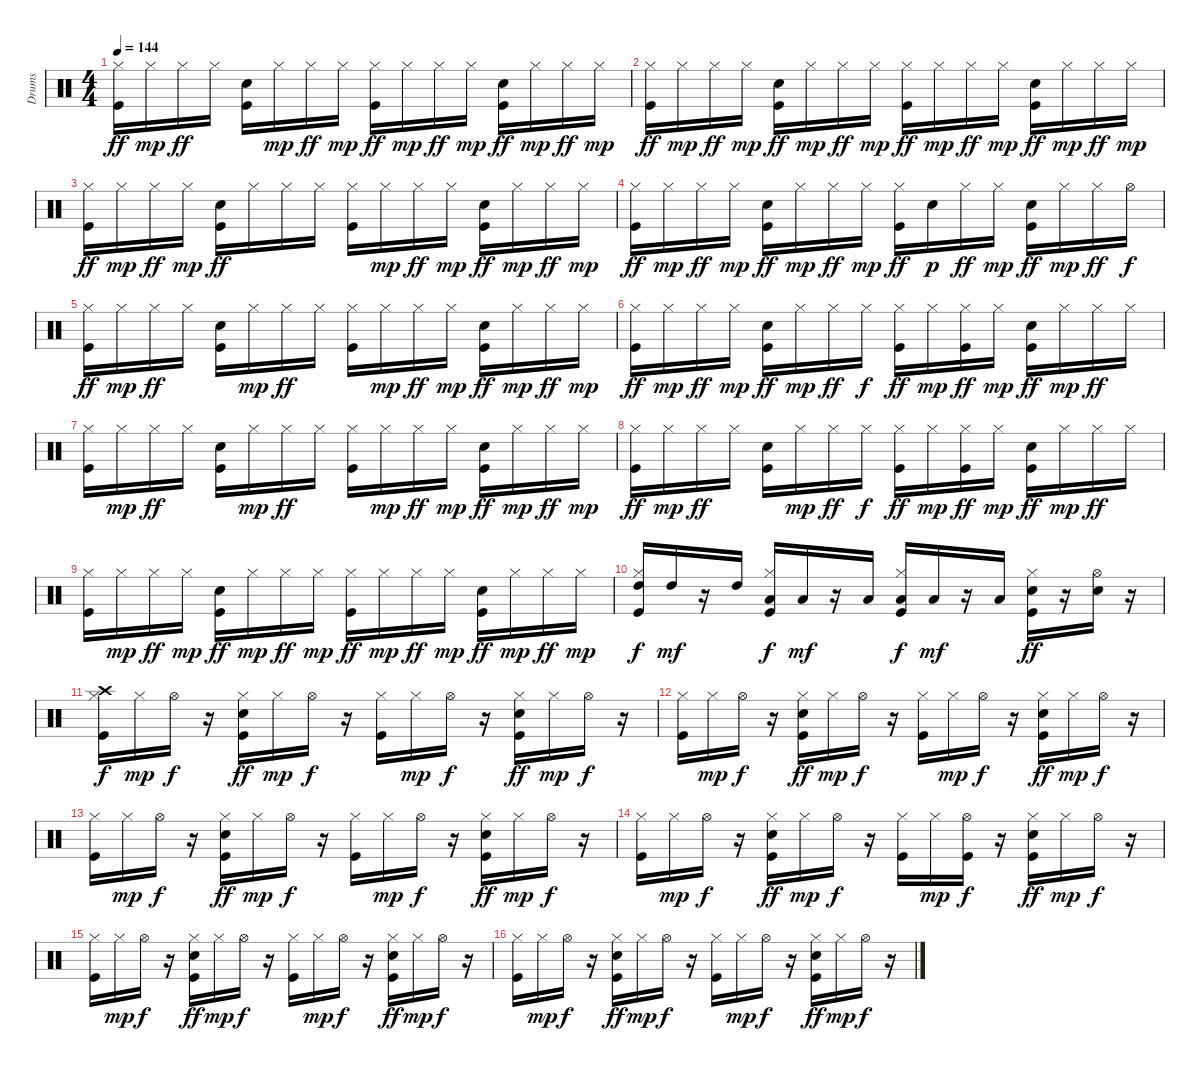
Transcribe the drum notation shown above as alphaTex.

\track ("Drums" "Drums") {instrument percussion}
\staff {score}
\articulation defaults
\ts (4 4)
\tempo 144
\clef neutral
\ks c
("Kick (hit)" "Hi-Hat (closed)").16{dy ff} "Hi-Hat (closed)".16{dy mp} "Hi-Hat (closed)".16{dy ff} "Hi-Hat (closed)".16 ("Kick (hit)" "Snare (hit) 2").16 "Hi-Hat (closed)".16{dy mp} "Hi-Hat (closed)".16{dy ff} "Hi-Hat (closed)".16{dy mp} ("Kick (hit)" "Hi-Hat (closed)").16{dy ff} "Hi-Hat (closed)".16{dy mp} "Hi-Hat (closed)".16{dy ff} "Hi-Hat (closed)".16{dy mp} ("Kick (hit)" "Snare (hit) 2").16{dy ff} "Hi-Hat (closed)".16{dy mp} "Hi-Hat (closed)".16{dy ff} "Hi-Hat (closed)".16{dy mp} |
("Kick (hit)" "Hi-Hat (closed)").16{dy ff} "Hi-Hat (closed)".16{dy mp} "Hi-Hat (closed)".16{dy ff} "Hi-Hat (closed)".16{dy mp} ("Kick (hit)" "Snare (hit) 2").16{dy ff} "Hi-Hat (closed)".16{dy mp} "Hi-Hat (closed)".16{dy ff} "Hi-Hat (closed)".16{dy mp} ("Kick (hit)" "Hi-Hat (closed)").16{dy ff} "Hi-Hat (closed)".16{dy mp} "Hi-Hat (closed)".16{dy ff} "Hi-Hat (closed)".16{dy mp} ("Kick (hit)" "Snare (hit) 2").16{dy ff} "Hi-Hat (closed)".16{dy mp} "Hi-Hat (closed)".16{dy ff} "Hi-Hat (closed)".16{dy mp} |
("Kick (hit)" "Hi-Hat (closed)").16{dy ff} "Hi-Hat (closed)".16{dy mp} "Hi-Hat (closed)".16{dy ff} "Hi-Hat (closed)".16{dy mp} ("Kick (hit)" "Snare (hit) 2").16{dy ff} "Hi-Hat (closed)".16 "Hi-Hat (closed)".16 "Hi-Hat (closed)".16 ("Kick (hit)" "Hi-Hat (closed)").16 "Hi-Hat (closed)".16{dy mp} "Hi-Hat (closed)".16{dy ff} "Hi-Hat (closed)".16{dy mp} ("Kick (hit)" "Snare (hit) 2").16{dy ff} "Hi-Hat (closed)".16{dy mp} "Hi-Hat (closed)".16{dy ff} "Hi-Hat (closed)".16{dy mp} |
("Kick (hit)" "Hi-Hat (closed)").16{dy ff} "Hi-Hat (closed)".16{dy mp} "Hi-Hat (closed)".16{dy ff} "Hi-Hat (closed)".16{dy mp} ("Kick (hit)" "Snare (hit) 2").16{dy ff} "Hi-Hat (closed)".16{dy mp} "Hi-Hat (closed)".16{dy ff} "Hi-Hat (closed)".16{dy mp} ("Kick (hit)" "Hi-Hat (closed)").16{dy ff} "Snare (hit) 2".16{dy p} "Hi-Hat (closed)".16{dy ff} "Hi-Hat (closed)".16{dy mp} ("Kick (hit)" "Snare (hit) 2").16{dy ff} "Hi-Hat (closed)".16{dy mp} "Hi-Hat (closed)".16{dy ff} "Hi-Hat (open)".16{dy f} |
("Kick (hit)" "Hi-Hat (closed)").16{dy ff} "Hi-Hat (closed)".16{dy mp} "Hi-Hat (closed)".16{dy ff} "Hi-Hat (closed)".16 ("Kick (hit)" "Snare (hit) 2").16 "Hi-Hat (closed)".16{dy mp} "Hi-Hat (closed)".16{dy ff} "Hi-Hat (closed)".16 ("Kick (hit)" "Hi-Hat (closed)").16 "Hi-Hat (closed)".16{dy mp} "Hi-Hat (closed)".16{dy ff} "Hi-Hat (closed)".16{dy mp} ("Kick (hit)" "Snare (hit) 2").16{dy ff} "Hi-Hat (closed)".16{dy mp} "Hi-Hat (closed)".16{dy ff} "Hi-Hat (closed)".16{dy mp} |
("Kick (hit)" "Hi-Hat (closed)").16{dy ff} "Hi-Hat (closed)".16{dy mp} "Hi-Hat (closed)".16{dy ff} "Hi-Hat (closed)".16{dy mp} ("Kick (hit)" "Snare (hit) 2").16{dy ff} "Hi-Hat (closed)".16{dy mp} "Hi-Hat (closed)".16{dy ff} "Hi-Hat (closed)".16{dy f} ("Kick (hit)" "Hi-Hat (closed)").16{dy ff} "Hi-Hat (closed)".16{dy mp} ("Kick (hit)" "Hi-Hat (closed)").16{dy ff} "Hi-Hat (closed)".16{dy mp} ("Kick (hit)" "Snare (hit) 2").16{dy ff} "Hi-Hat (closed)".16{dy mp} "Hi-Hat (closed)".16{dy ff} "Hi-Hat (closed)".16 |
("Kick (hit)" "Hi-Hat (closed)").16 "Hi-Hat (closed)".16{dy mp} "Hi-Hat (closed)".16{dy ff} "Hi-Hat (closed)".16 ("Kick (hit)" "Snare (hit) 2").16 "Hi-Hat (closed)".16{dy mp} "Hi-Hat (closed)".16{dy ff} "Hi-Hat (closed)".16 ("Kick (hit)" "Hi-Hat (closed)").16 "Hi-Hat (closed)".16{dy mp} "Hi-Hat (closed)".16{dy ff} "Hi-Hat (closed)".16{dy mp} ("Kick (hit)" "Snare (hit) 2").16{dy ff} "Hi-Hat (closed)".16{dy mp} "Hi-Hat (closed)".16{dy ff} "Hi-Hat (closed)".16{dy mp} |
("Kick (hit)" "Hi-Hat (closed)").16{dy ff} "Hi-Hat (closed)".16{dy mp} "Hi-Hat (closed)".16{dy ff} "Hi-Hat (closed)".16 ("Kick (hit)" "Snare (hit) 2").16 "Hi-Hat (closed)".16{dy mp} "Hi-Hat (closed)".16{dy ff} "Hi-Hat (closed)".16{dy f} ("Kick (hit)" "Hi-Hat (closed)").16{dy ff} "Hi-Hat (closed)".16{dy mp} ("Kick (hit)" "Hi-Hat (closed)").16{dy ff} "Hi-Hat (closed)".16{dy mp} ("Kick (hit)" "Snare (hit) 2").16{dy ff} "Hi-Hat (closed)".16{dy mp} "Hi-Hat (closed)".16{dy ff} "Hi-Hat (closed)".16 |
("Kick (hit)" "Hi-Hat (closed)").16 "Hi-Hat (closed)".16{dy mp} "Hi-Hat (closed)".16{dy ff} "Hi-Hat (closed)".16{dy mp} ("Kick (hit)" "Snare (hit) 2").16{dy ff} "Hi-Hat (closed)".16{dy mp} "Hi-Hat (closed)".16{dy ff} "Hi-Hat (closed)".16{dy mp} ("Kick (hit)" "Hi-Hat (closed)").16{dy ff} "Hi-Hat (closed)".16{dy mp} "Hi-Hat (closed)".16{dy ff} "Hi-Hat (closed)".16{dy mp} ("Kick (hit)" "Snare (hit) 2").16{dy ff} "Hi-Hat (closed)".16{dy mp} "Hi-Hat (closed)".16{dy ff} "Hi-Hat (closed)".16{dy mp} |
("Kick (hit)" "Hi-Hat (closed)" "High Tom (hit)").16{dy f} "High Tom (hit)".16{dy mf} r.16 "High Tom (hit)".16 ("Kick (hit)" "Hi-Hat (closed)" "Low Tom (hit)").16{dy f} "Low Tom (hit)".16{dy mf} r.16 "Low Tom (hit)".16 ("Kick (hit)" "Low Floor Tom (hit)" "Hi-Hat (closed)").16{dy f} "Low Floor Tom (hit)".16{dy mf} r.16 "Low Floor Tom (hit)".16 ("Kick (hit)" "Snare (hit) 2" "Hi-Hat (closed)").16{dy ff} r.16 ("Snare (hit) 2" "Hi-Hat (open)").16 r.16 |
("Kick (hit)" "Hi-Hat (closed)" "Crash high (hit)").16{dy f} "Hi-Hat (closed)".16{dy mp} "Hi-Hat (open)".16{dy f} r.16 ("Kick (hit)" "Snare (hit) 2" "Hi-Hat (closed)").16{dy ff} "Hi-Hat (closed)".16{dy mp} "Hi-Hat (open)".16{dy f} r.16 ("Kick (hit)" "Hi-Hat (closed)").16 "Hi-Hat (closed)".16{dy mp} "Hi-Hat (open)".16{dy f} r.16 ("Kick (hit)" "Snare (hit) 2" "Hi-Hat (closed)").16{dy ff} "Hi-Hat (closed)".16{dy mp} "Hi-Hat (open)".16{dy f} r.16 |
("Kick (hit)" "Hi-Hat (closed)").16 "Hi-Hat (closed)".16{dy mp} "Hi-Hat (open)".16{dy f} r.16 ("Kick (hit)" "Snare (hit) 2" "Hi-Hat (closed)").16{dy ff} "Hi-Hat (closed)".16{dy mp} "Hi-Hat (open)".16{dy f} r.16 ("Kick (hit)" "Hi-Hat (closed)").16 "Hi-Hat (closed)".16{dy mp} "Hi-Hat (open)".16{dy f} r.16 ("Kick (hit)" "Snare (hit) 2" "Hi-Hat (closed)").16{dy ff} "Hi-Hat (closed)".16{dy mp} "Hi-Hat (open)".16{dy f} r.16 |
("Kick (hit)" "Hi-Hat (closed)").16 "Hi-Hat (closed)".16{dy mp} "Hi-Hat (open)".16{dy f} r.16 ("Kick (hit)" "Snare (hit) 2" "Hi-Hat (closed)").16{dy ff} "Hi-Hat (closed)".16{dy mp} "Hi-Hat (open)".16{dy f} r.16 ("Kick (hit)" "Hi-Hat (closed)").16 "Hi-Hat (closed)".16{dy mp} "Hi-Hat (open)".16{dy f} r.16 ("Kick (hit)" "Snare (hit) 2" "Hi-Hat (closed)").16{dy ff} "Hi-Hat (closed)".16{dy mp} "Hi-Hat (open)".16{dy f} r.16 |
("Kick (hit)" "Hi-Hat (closed)").16 "Hi-Hat (closed)".16{dy mp} "Hi-Hat (open)".16{dy f} r.16 ("Kick (hit)" "Snare (hit) 2" "Hi-Hat (closed)").16{dy ff} "Hi-Hat (closed)".16{dy mp} "Hi-Hat (open)".16{dy f} r.16 ("Kick (hit)" "Hi-Hat (closed)").16 "Hi-Hat (closed)".16{dy mp} ("Kick (hit)" "Hi-Hat (open)").16{dy f} r.16 ("Kick (hit)" "Snare (hit) 2" "Hi-Hat (closed)").16{dy ff} "Hi-Hat (closed)".16{dy mp} "Hi-Hat (open)".16{dy f} r.16 |
("Kick (hit)" "Hi-Hat (closed)").16 "Hi-Hat (closed)".16{dy mp} "Hi-Hat (open)".16{dy f} r.16 ("Kick (hit)" "Snare (hit) 2" "Hi-Hat (closed)").16{dy ff} "Hi-Hat (closed)".16{dy mp} "Hi-Hat (open)".16{dy f} r.16 ("Kick (hit)" "Hi-Hat (closed)").16 "Hi-Hat (closed)".16{dy mp} "Hi-Hat (open)".16{dy f} r.16 ("Kick (hit)" "Snare (hit) 2" "Hi-Hat (closed)").16{dy ff} "Hi-Hat (closed)".16{dy mp} "Hi-Hat (open)".16{dy f} r.16 |
("Kick (hit)" "Hi-Hat (closed)").16 "Hi-Hat (closed)".16{dy mp} "Hi-Hat (open)".16{dy f} r.16 ("Kick (hit)" "Snare (hit) 2" "Hi-Hat (closed)").16{dy ff} "Hi-Hat (closed)".16{dy mp} "Hi-Hat (open)".16{dy f} r.16 ("Kick (hit)" "Hi-Hat (closed)").16 "Hi-Hat (closed)".16{dy mp} "Hi-Hat (open)".16{dy f} r.16 ("Kick (hit)" "Snare (hit) 2" "Hi-Hat (closed)").16{dy ff} "Hi-Hat (closed)".16{dy mp} "Hi-Hat (open)".16{dy f} r.16
